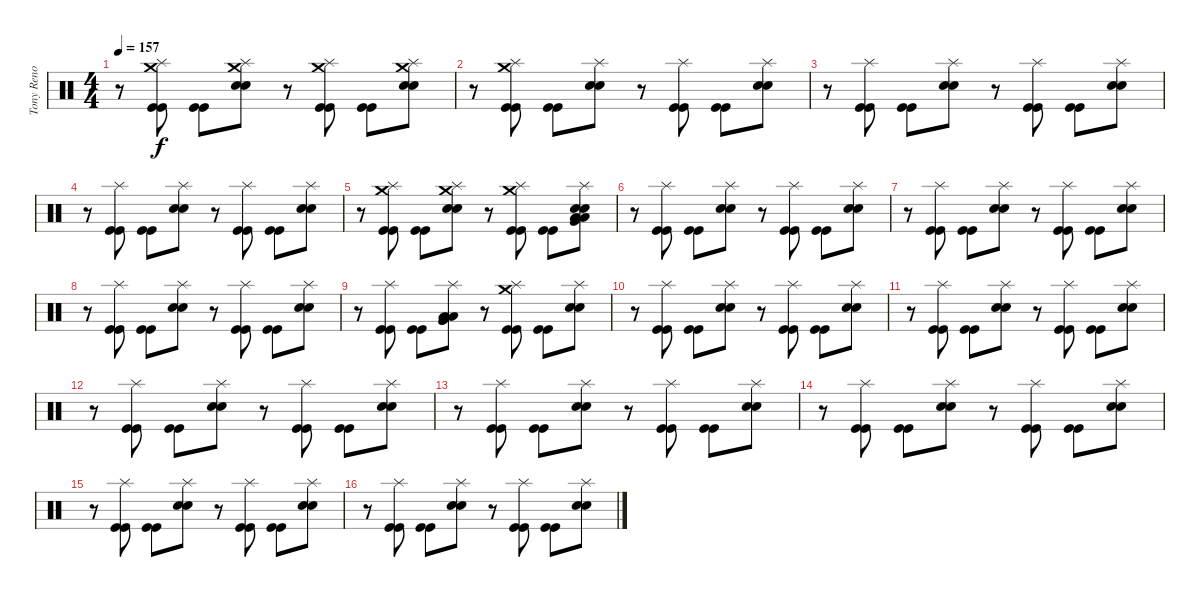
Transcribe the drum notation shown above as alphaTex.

\track ("Tony Reno ( 1984 < Ian Haughland )" "Tony Reno ") {instrument percussion}
\staff {score}
\articulation defaults
\ts (4 4)
\tempo 157
\clef neutral
\ks c
r.8{dy f} ("Crash medium (hit)" "Kick (hit)" "Kick (hit)" "Splash (hit)").8 ("Kick (hit)" "Kick (hit)").8 ("Crash medium (hit)" "Splash (hit)" "Electric Snare (hit)" "Electric Snare (hit)").8 r.8 ("Crash medium (hit)" "Kick (hit)" "Kick (hit)" "Splash (hit)").8 ("Kick (hit)" "Kick (hit)").8 ("Crash medium (hit)" "Splash (hit)" "Electric Snare (hit)" "Electric Snare (hit)").8 |
r.8 ("Crash medium (hit)" "Kick (hit)" "Kick (hit)" "Splash (hit)").8 ("Kick (hit)" "Kick (hit)").8 ("Splash (hit)" "Electric Snare (hit)" "Electric Snare (hit)").8 r.8 ("Kick (hit)" "Kick (hit)" "Splash (hit)").8 ("Kick (hit)" "Kick (hit)").8 ("Splash (hit)" "Electric Snare (hit)" "Electric Snare (hit)").8 |
r.8 ("Kick (hit)" "Kick (hit)" "Splash (hit)").8 ("Kick (hit)" "Kick (hit)").8 ("Splash (hit)" "Electric Snare (hit)" "Electric Snare (hit)").8 r.8 ("Kick (hit)" "Kick (hit)" "Splash (hit)").8 ("Kick (hit)" "Kick (hit)").8 ("Splash (hit)" "Electric Snare (hit)" "Electric Snare (hit)").8 |
r.8 ("Kick (hit)" "Kick (hit)" "Splash (hit)").8 ("Kick (hit)" "Kick (hit)").8 ("Splash (hit)" "Electric Snare (hit)" "Electric Snare (hit)").8 r.8 ("Kick (hit)" "Kick (hit)" "Splash (hit)").8 ("Kick (hit)" "Kick (hit)").8 ("Splash (hit)" "Electric Snare (hit)" "Electric Snare (hit)").8 |
r.8 ("Crash medium (hit)" "Kick (hit)" "Kick (hit)" "Splash (hit)").8 ("Kick (hit)" "Kick (hit)").8 ("Crash medium (hit)" "Splash (hit)" "Electric Snare (hit)" "Electric Snare (hit)").8 r.8 ("Crash medium (hit)" "Kick (hit)" "Kick (hit)" "Splash (hit)").8 ("Kick (hit)" "Kick (hit)").8 ("Low Tom (hit)" "Very Low Tom (hit)" "Low Floor Tom (hit)" "Splash (hit)" "Electric Snare (hit)" "Electric Snare (hit)").8 |
r.8 ("Kick (hit)" "Kick (hit)" "Splash (hit)").8 ("Kick (hit)" "Kick (hit)").8 ("Splash (hit)" "Electric Snare (hit)" "Electric Snare (hit)").8 r.8 ("Kick (hit)" "Kick (hit)" "Splash (hit)").8 ("Kick (hit)" "Kick (hit)").8 ("Splash (hit)" "Electric Snare (hit)" "Electric Snare (hit)").8 |
r.8 ("Kick (hit)" "Kick (hit)" "Splash (hit)").8 ("Kick (hit)" "Kick (hit)").8 ("Splash (hit)" "Electric Snare (hit)" "Electric Snare (hit)").8 r.8 ("Kick (hit)" "Kick (hit)" "Splash (hit)").8 ("Kick (hit)" "Kick (hit)").8 ("Splash (hit)" "Electric Snare (hit)" "Electric Snare (hit)").8 |
r.8 ("Kick (hit)" "Kick (hit)" "Splash (hit)").8 ("Kick (hit)" "Kick (hit)").8 ("Splash (hit)" "Electric Snare (hit)" "Electric Snare (hit)").8 r.8 ("Kick (hit)" "Kick (hit)" "Splash (hit)").8 ("Kick (hit)" "Kick (hit)").8 ("Electric Snare (hit)" "Electric Snare (hit)" "Splash (hit)").8 |
r.8 ("Kick (hit)" "Kick (hit)" "Splash (hit)").8 ("Kick (hit)" "Kick (hit)").8 ("Low Tom (hit)" "Low Tom (hit)" "Very Low Tom (hit)" "Very Low Tom (hit)" "Splash (hit)").8 r.8 ("Crash medium (hit)" "Kick (hit)" "Kick (hit)" "Splash (hit)").8 ("Kick (hit)" "Kick (hit)").8 ("Electric Snare (hit)" "Electric Snare (hit)" "Splash (hit)").8 |
r.8 ("Kick (hit)" "Kick (hit)" "Splash (hit)").8 ("Kick (hit)" "Kick (hit)").8 ("Splash (hit)" "Electric Snare (hit)" "Electric Snare (hit)").8 r.8 ("Kick (hit)" "Kick (hit)" "Splash (hit)").8 ("Kick (hit)" "Kick (hit)").8 ("Electric Snare (hit)" "Electric Snare (hit)" "Splash (hit)").8 |
r.8 ("Kick (hit)" "Kick (hit)" "Splash (hit)").8 ("Kick (hit)" "Kick (hit)").8 ("Splash (hit)" "Electric Snare (hit)" "Electric Snare (hit)").8 r.8 ("Kick (hit)" "Kick (hit)" "Splash (hit)").8 ("Kick (hit)" "Kick (hit)").8 ("Electric Snare (hit)" "Electric Snare (hit)" "Splash (hit)").8 |
r.8 ("Kick (hit)" "Kick (hit)" "Splash (hit)").8 ("Kick (hit)" "Kick (hit)").8 ("Splash (hit)" "Electric Snare (hit)" "Electric Snare (hit)").8 r.8 ("Kick (hit)" "Kick (hit)" "Splash (hit)").8 ("Kick (hit)" "Kick (hit)").8 ("Electric Snare (hit)" "Electric Snare (hit)" "Splash (hit)").8 |
r.8 ("Kick (hit)" "Kick (hit)" "Splash (hit)").8 ("Kick (hit)" "Kick (hit)").8 ("Splash (hit)" "Electric Snare (hit)" "Electric Snare (hit)").8 r.8 ("Kick (hit)" "Kick (hit)" "Splash (hit)").8 ("Kick (hit)" "Kick (hit)").8 ("Electric Snare (hit)" "Electric Snare (hit)" "Splash (hit)").8 |
r.8 ("Kick (hit)" "Kick (hit)" "Splash (hit)").8 ("Kick (hit)" "Kick (hit)").8 ("Splash (hit)" "Electric Snare (hit)" "Electric Snare (hit)").8 r.8 ("Kick (hit)" "Kick (hit)" "Splash (hit)").8 ("Kick (hit)" "Kick (hit)").8 ("Electric Snare (hit)" "Electric Snare (hit)" "Splash (hit)").8 |
r.8 ("Kick (hit)" "Kick (hit)" "Splash (hit)").8 ("Kick (hit)" "Kick (hit)").8 ("Splash (hit)" "Electric Snare (hit)" "Electric Snare (hit)").8 r.8 ("Kick (hit)" "Kick (hit)" "Splash (hit)").8 ("Kick (hit)" "Kick (hit)").8 ("Electric Snare (hit)" "Electric Snare (hit)" "Splash (hit)").8 |
r.8 ("Kick (hit)" "Kick (hit)" "Splash (hit)").8 ("Kick (hit)" "Kick (hit)").8 ("Splash (hit)" "Electric Snare (hit)" "Electric Snare (hit)").8 r.8 ("Kick (hit)" "Kick (hit)" "Splash (hit)").8 ("Kick (hit)" "Kick (hit)").8 ("Electric Snare (hit)" "Electric Snare (hit)" "Splash (hit)").8
